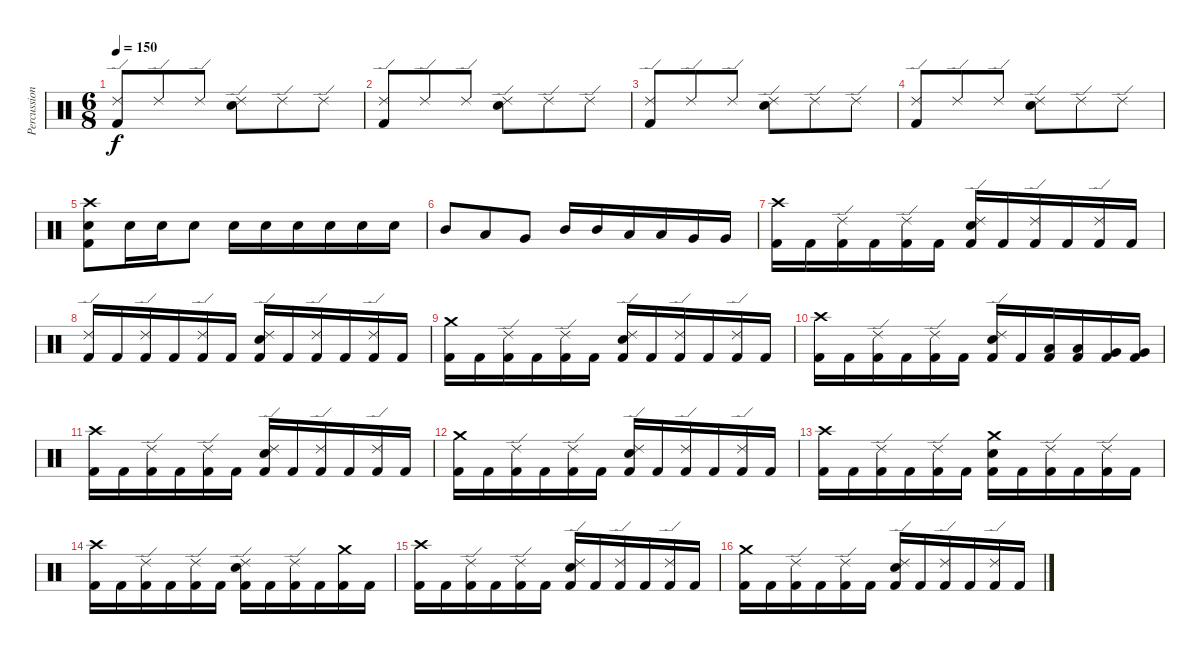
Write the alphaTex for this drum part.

\track ("Percussion" "Percussion") {instrument percussion}
\staff {score}
\articulation defaults
\ts (6 8)
\tempo 150
\clef neutral
\ks c
("Ride (edge) 2" "Kick (hit) 2").8{dy f} "Ride (edge) 2".8 "Ride (edge) 2".8 ("Ride (edge) 2" "Electric Snare (hit)").8 "Ride (edge) 2".8 "Ride (edge) 2".8 |
("Ride (edge) 2" "Kick (hit) 2").8 "Ride (edge) 2".8 "Ride (edge) 2".8 ("Ride (edge) 2" "Electric Snare (hit)").8 "Ride (edge) 2".8 "Ride (edge) 2".8 |
("Ride (edge) 2" "Kick (hit) 2").8 "Ride (edge) 2".8 "Ride (edge) 2".8 ("Ride (edge) 2" "Electric Snare (hit)").8 "Ride (edge) 2".8 "Ride (edge) 2".8 |
("Ride (edge) 2" "Kick (hit) 2").8 "Ride (edge) 2".8 "Ride (edge) 2".8 ("Ride (edge) 2" "Electric Snare (hit)").8 "Ride (edge) 2".8 "Ride (edge) 2".8 |
("Crash high (hit)" "Electric Snare (hit)" "Kick (hit) 2").8 "Electric Snare (hit)".16 "Electric Snare (hit)".16 "Electric Snare (hit)".8 "Electric Snare (hit)".16 "Electric Snare (hit)".16 "Electric Snare (hit)".16 "Electric Snare (hit)".16 "Electric Snare (hit)".16 "Electric Snare (hit)".16 |
"Mid Tom (hit)".8 "Low Tom (hit)".8 "Very Low Tom (hit)".8 "Mid Tom (hit)".16 "Mid Tom (hit)".16 "Low Tom (hit)".16 "Low Tom (hit)".16 "Very Low Tom (hit)".16 "Very Low Tom (hit)".16 |
("Crash high (hit)" "Kick (hit) 2").16 "Kick (hit) 2".16 ("Ride (edge) 2" "Kick (hit) 2").16 "Kick (hit) 2".16 ("Ride (edge) 2" "Kick (hit) 2").16 "Kick (hit) 2".16 ("Ride (edge) 2" "Electric Snare (hit)" "Kick (hit) 2").16 "Kick (hit) 2".16 ("Ride (edge) 2" "Kick (hit) 2").16 "Kick (hit) 2".16 ("Ride (edge) 2" "Kick (hit) 2").16 "Kick (hit) 2".16 |
("Ride (edge) 2" "Kick (hit) 2").16 "Kick (hit) 2".16 ("Ride (edge) 2" "Kick (hit) 2").16 "Kick (hit) 2".16 ("Ride (edge) 2" "Kick (hit) 2").16 "Kick (hit) 2".16 ("Ride (edge) 2" "Electric Snare (hit)" "Kick (hit) 2").16 "Kick (hit) 2".16 ("Ride (edge) 2" "Kick (hit) 2").16 "Kick (hit) 2".16 ("Ride (edge) 2" "Kick (hit) 2").16 "Kick (hit) 2".16 |
("Crash medium (hit)" "Kick (hit) 2").16 "Kick (hit) 2".16 ("Ride (edge) 2" "Kick (hit) 2").16 "Kick (hit) 2".16 ("Ride (edge) 2" "Kick (hit) 2").16 "Kick (hit) 2".16 ("Ride (edge) 2" "Electric Snare (hit)" "Kick (hit) 2").16 "Kick (hit) 2".16 ("Ride (edge) 2" "Kick (hit) 2").16 "Kick (hit) 2".16 ("Ride (edge) 2" "Kick (hit) 2").16 "Kick (hit) 2".16 |
("Crash high (hit)" "Kick (hit) 2").16 "Kick (hit) 2".16 ("Ride (edge) 2" "Kick (hit) 2").16 "Kick (hit) 2".16 ("Ride (edge) 2" "Kick (hit) 2").16 "Kick (hit) 2".16 ("Ride (edge) 2" "Electric Snare (hit)" "Kick (hit) 2").16 "Kick (hit) 2".16 ("Low Tom (hit)" "Kick (hit) 2").16 ("Low Tom (hit)" "Kick (hit) 2").16 ("Very Low Tom (hit)" "Kick (hit) 2").16 ("Very Low Tom (hit)" "Kick (hit) 2").16 |
("Crash high (hit)" "Kick (hit) 2").16 "Kick (hit) 2".16 ("Ride (edge) 2" "Kick (hit) 2").16 "Kick (hit) 2".16 ("Ride (edge) 2" "Kick (hit) 2").16 "Kick (hit) 2".16 ("Ride (edge) 2" "Electric Snare (hit)" "Kick (hit) 2").16 "Kick (hit) 2".16 ("Ride (edge) 2" "Kick (hit) 2").16 "Kick (hit) 2".16 ("Ride (edge) 2" "Kick (hit) 2").16 "Kick (hit) 2".16 |
("Crash medium (hit)" "Kick (hit) 2").16 "Kick (hit) 2".16 ("Ride (edge) 2" "Kick (hit) 2").16 "Kick (hit) 2".16 ("Ride (edge) 2" "Kick (hit) 2").16 "Kick (hit) 2".16 ("Ride (edge) 2" "Electric Snare (hit)" "Kick (hit) 2").16 "Kick (hit) 2".16 ("Ride (edge) 2" "Kick (hit) 2").16 "Kick (hit) 2".16 ("Ride (edge) 2" "Kick (hit) 2").16 "Kick (hit) 2".16 |
("Crash high (hit)" "Kick (hit) 2").16 "Kick (hit) 2".16 ("Ride (edge) 2" "Kick (hit) 2").16 "Kick (hit) 2".16 ("Ride (edge) 2" "Kick (hit) 2").16 "Kick (hit) 2".16 ("Crash medium (hit)" "Electric Snare (hit)" "Kick (hit) 2").16 "Kick (hit) 2".16 ("Ride (edge) 2" "Kick (hit) 2").16 "Kick (hit) 2".16 ("Ride (edge) 2" "Kick (hit) 2").16 "Kick (hit) 2".16 |
("Crash high (hit)" "Kick (hit) 2").16 "Kick (hit) 2".16 ("Ride (edge) 2" "Kick (hit) 2").16 "Kick (hit) 2".16 ("Ride (edge) 2" "Kick (hit) 2").16 "Kick (hit) 2".16 ("Ride (edge) 2" "Electric Snare (hit)" "Kick (hit) 2").16 "Kick (hit) 2".16 ("Ride (edge) 2" "Kick (hit) 2").16 "Kick (hit) 2".16 ("Crash medium (hit)" "Kick (hit) 2").16 "Kick (hit) 2".16 |
("Crash high (hit)" "Kick (hit) 2").16 "Kick (hit) 2".16 ("Ride (edge) 2" "Kick (hit) 2").16 "Kick (hit) 2".16 ("Ride (edge) 2" "Kick (hit) 2").16 "Kick (hit) 2".16 ("Ride (edge) 2" "Electric Snare (hit)" "Kick (hit) 2").16 "Kick (hit) 2".16 ("Ride (edge) 2" "Kick (hit) 2").16 "Kick (hit) 2".16 ("Ride (edge) 2" "Kick (hit) 2").16 "Kick (hit) 2".16 |
("Crash medium (hit)" "Kick (hit) 2").16 "Kick (hit) 2".16 ("Ride (edge) 2" "Kick (hit) 2").16 "Kick (hit) 2".16 ("Ride (edge) 2" "Kick (hit) 2").16 "Kick (hit) 2".16 ("Ride (edge) 2" "Electric Snare (hit)" "Kick (hit) 2").16 "Kick (hit) 2".16 ("Ride (edge) 2" "Kick (hit) 2").16 "Kick (hit) 2".16 ("Ride (edge) 2" "Kick (hit) 2").16 "Kick (hit) 2".16
